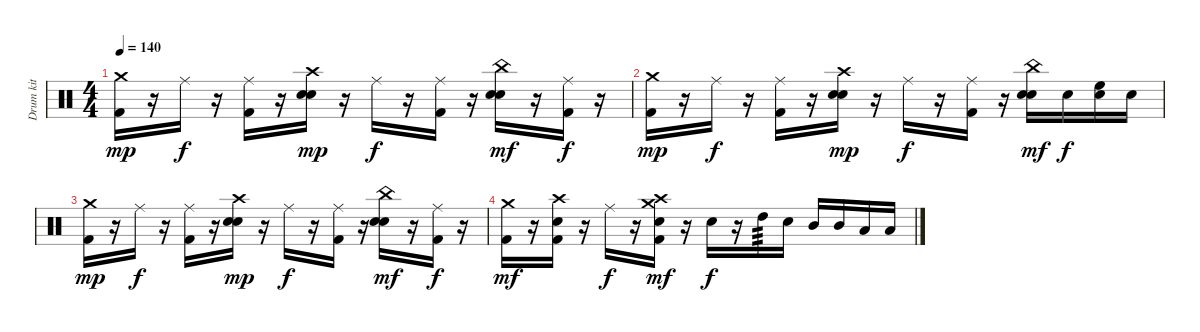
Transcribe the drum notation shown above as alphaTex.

\track ("Drum kit" "Drum kit") {solo instrument percussion}
\staff {score}
\articulation defaults
\ts (4 4)
\tempo 140
\clef neutral
\ks c
("Crash medium (hit)" "Kick (hit) 2").16{dy mp} r.16 "Ride (middle)".16{dy f} r.16 ("Ride (middle)" "Kick (hit) 2").16 r.16 ("Crash high (hit)" "Electric Snare (hit)" "Snare (hit)").16{dy mp} r.16 "Ride (middle)".16{dy f} r.16 ("Ride (middle)" "Kick (hit) 2").16 r.16 ("China (hit)" "Electric Snare (hit)" "Snare (hit)").16{dy mf} r.16 ("Ride (middle)" "Kick (hit) 2").16{dy f} r.16 |
("Crash medium (hit)" "Kick (hit) 2").16{dy mp} r.16 "Ride (middle)".16{dy f} r.16 ("Ride (middle)" "Kick (hit) 2").16 r.16 ("Crash high (hit)" "Electric Snare (hit)" "Snare (hit)").16{dy mp} r.16 "Ride (middle)".16{dy f} r.16 ("Ride (middle)" "Kick (hit) 2").16 r.16 ("China (hit)" "Electric Snare (hit)" "Snare (hit)").16{dy mf} "Electric Snare (hit)".16{dy f} ("High Floor Tom (hit)" "Electric Snare (hit)").16 "Snare (hit)".16 |
("Crash medium (hit)" "Kick (hit) 2").16{dy mp} r.16 "Ride (middle)".16{dy f} r.16 ("Ride (middle)" "Kick (hit) 2").16 r.16 ("Crash high (hit)" "Electric Snare (hit)" "Snare (hit)").16{dy mp} r.16 "Ride (middle)".16{dy f} r.16 ("Ride (middle)" "Kick (hit) 2").16 r.16 ("China (hit)" "Electric Snare (hit)" "Snare (hit)").16{dy mf} r.16 ("Ride (middle)" "Kick (hit) 2").16{dy f} r.16 |
("Crash medium (hit)" "Kick (hit) 2").16{dy mf} r.16 ("Crash high (hit)" "Electric Snare (hit)" "Kick (hit) 2").16 r.16 "Ride (middle)".16{dy f} r.16 ("Crash medium (hit)" "Crash high (hit)" "Snare (hit)" "Kick (hit) 2").16{dy mf} r.16 "Electric Snare (hit)".16{dy f} r.16 "High Tom (hit)".16{tp 3} "Snare (hit)".16 "Mid Tom (hit)".16 "Mid Tom (hit)".16 "Low Tom (hit)".16 "Low Tom (hit)".16
